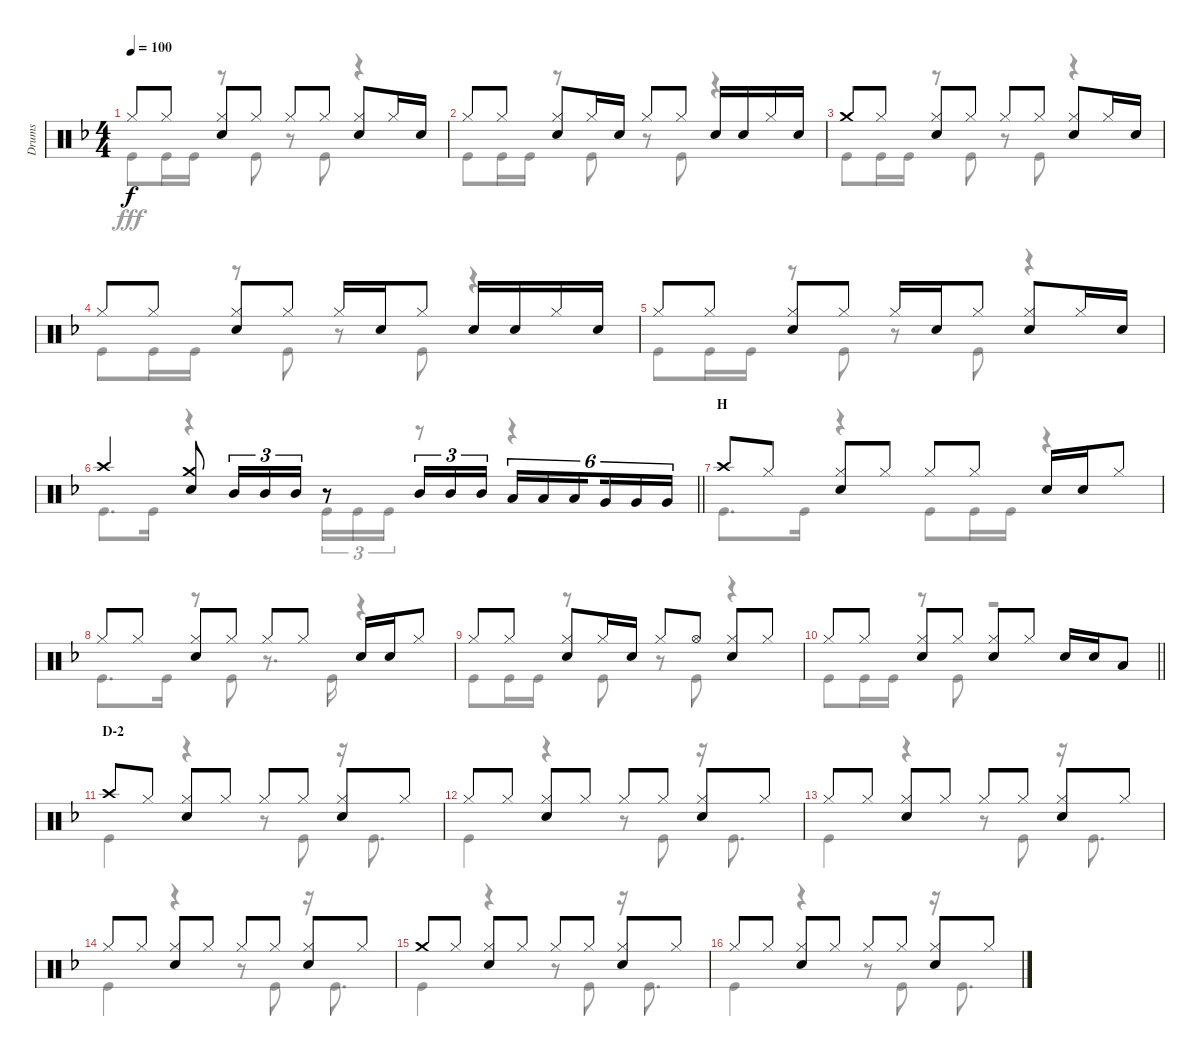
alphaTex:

\track ("Drums" "Drums") {instrument percussion}
\staff {score}
\articulation defaults
\voice
\ts (4 4)
\tempo 100
\clef neutral
\ks f "Hi-Hat (closed)".8{dy f} "Hi-Hat (closed)".8
("Hi-Hat (closed)" "Snare (hit) 2").8 "Hi-Hat (closed)".8 "Hi-Hat (closed)".8 "Hi-Hat (closed)".8 ("Hi-Hat (closed)" "Snare (hit) 2").8 "Hi-Hat (closed)".16 "Snare (hit) 2".16 |
"Hi-Hat (closed)".8 "Hi-Hat (closed)".8 ("Hi-Hat (closed)" "Snare (hit) 2").8 "Hi-Hat (closed)".16 "Snare (hit) 2".16 "Hi-Hat (closed)".8 "Hi-Hat (closed)".8 "Snare (hit) 2".16 "Snare (hit) 2".16 "Hi-Hat (closed)".16 "Snare (hit) 2".16 |
"Crash medium (hit)".8 "Hi-Hat (closed)".8 ("Hi-Hat (closed)" "Snare (hit) 2").8 "Hi-Hat (closed)".8 "Hi-Hat (closed)".8 "Hi-Hat (closed)".8 ("Hi-Hat (closed)" "Snare (hit) 2").8 "Hi-Hat (closed)".16 "Snare (hit) 2".16 |
"Hi-Hat (closed)".8 "Hi-Hat (closed)".8 ("Hi-Hat (closed)" "Snare (hit) 2").8 "Hi-Hat (closed)".8 "Hi-Hat (closed)".16 "Snare (hit) 2".16 "Hi-Hat (closed)".8 "Snare (hit) 2".16 "Snare (hit) 2".16 "Hi-Hat (closed)".16 "Snare (hit) 2".16 |
"Hi-Hat (closed)".8 "Hi-Hat (closed)".8 ("Hi-Hat (closed)" "Snare (hit) 2").8 "Hi-Hat (closed)".8 "Hi-Hat (closed)".16 "Snare (hit) 2".16 "Hi-Hat (closed)".8 ("Hi-Hat (closed)" "Snare (hit) 2").8 "Hi-Hat (closed)".16 "Snare (hit) 2".16 |
\barLineRight lightlight "Crash high (hit)".4
("Crash medium (hit)" "Snare (hit) 2").8 "Mid Tom (hit)".16{tu (3 2)} "Mid Tom (hit)".16{tu (3 2)} "Mid Tom (hit)".16{tu (3 2)} r.8 "Mid Tom (hit)".16{tu (3 2)} "Mid Tom (hit)".16{tu (3 2)} "Mid Tom (hit)".16{tu (3 2)} "Low Tom (hit)".16{tu (6 4)} "Low Tom (hit)".16{tu (6 4)} "Low Tom (hit)".16{tu (6 4) beam splitsecondary} "Very Low Tom (hit)".16{tu (6 4)} "Very Low Tom (hit)".16{tu (6 4)} "Very Low Tom (hit)".16{tu (6 4)} |
\section ("" "H")
"Crash high (hit)".8 "Hi-Hat (closed)".8 ("Hi-Hat (closed)" "Snare (hit) 2").8 "Hi-Hat (closed)".8 "Hi-Hat (closed)".8 "Hi-Hat (closed)".8 "Snare (hit) 2".16 "Snare (hit) 2".16 "Hi-Hat (closed)".8 |
"Hi-Hat (closed)".8 "Hi-Hat (closed)".8 ("Hi-Hat (closed)" "Snare (hit) 2").8 "Hi-Hat (closed)".8 "Hi-Hat (closed)".8 "Hi-Hat (closed)".8 "Snare (hit) 2".16 "Snare (hit) 2".16 "Hi-Hat (closed)".8 |
"Hi-Hat (closed)".8 "Hi-Hat (closed)".8 ("Hi-Hat (closed)" "Snare (hit) 2").8 "Hi-Hat (closed)".16 "Snare (hit) 2".16 "Hi-Hat (closed)".8 "Hi-Hat (open)".8 ("Hi-Hat (closed)" "Snare (hit) 2").8 "Hi-Hat (closed)".8 |
\barLineRight lightlight "Hi-Hat (closed)".8 "Hi-Hat (closed)".8
("Hi-Hat (closed)" "Snare (hit) 2").8 "Hi-Hat (closed)".8 ("Hi-Hat (closed)" "Snare (hit) 2").8 "Hi-Hat (closed)".8 "Snare (hit) 2".16 "Snare (hit) 2".16 "Low Tom (hit)".8 |
\section ("" "D-2")
"Crash high (hit)".8 "Hi-Hat (closed)".8 ("Hi-Hat (closed)" "Snare (hit) 2").8 "Hi-Hat (closed)".8 "Hi-Hat (closed)".8 "Hi-Hat (closed)".8 ("Hi-Hat (closed)" "Snare (hit) 2").8 "Hi-Hat (closed)".8 |
"Hi-Hat (closed)".8 "Hi-Hat (closed)".8 ("Hi-Hat (closed)" "Snare (hit) 2").8 "Hi-Hat (closed)".8 "Hi-Hat (closed)".8 "Hi-Hat (closed)".8 ("Hi-Hat (closed)" "Snare (hit) 2").8 "Hi-Hat (closed)".8 |
"Hi-Hat (closed)".8 "Hi-Hat (closed)".8 ("Hi-Hat (closed)" "Snare (hit) 2").8 "Hi-Hat (closed)".8 "Hi-Hat (closed)".8 "Hi-Hat (closed)".8 ("Hi-Hat (closed)" "Snare (hit) 2").8 "Hi-Hat (closed)".8 |
"Hi-Hat (closed)".8 "Hi-Hat (closed)".8 ("Hi-Hat (closed)" "Snare (hit) 2").8 "Hi-Hat (closed)".8 "Hi-Hat (closed)".8 "Hi-Hat (closed)".8 ("Hi-Hat (closed)" "Snare (hit) 2").8 "Hi-Hat (closed)".8 |
"Crash medium (hit)".8 "Hi-Hat (closed)".8 ("Hi-Hat (closed)" "Snare (hit) 2").8 "Hi-Hat (closed)".8 "Hi-Hat (closed)".8 "Hi-Hat (closed)".8 ("Hi-Hat (closed)" "Snare (hit) 2").8 "Hi-Hat (closed)".8 |
"Hi-Hat (closed)".8 "Hi-Hat (closed)".8 ("Hi-Hat (closed)" "Snare (hit) 2").8 "Hi-Hat (closed)".8 "Hi-Hat (closed)".8 "Hi-Hat (closed)".8 ("Hi-Hat (closed)" "Snare (hit) 2").8 "Hi-Hat (closed)".8
\voice
\clef neutral
\ottava regular
\simile none
\ks f "Kick (hit)".8{dy fff} "Kick (hit)".16 "Kick (hit)".16
r.8 "Kick (hit)".8 r.8 "Kick (hit)".8 r.4 |
"Kick (hit)".8 "Kick (hit)".16 "Kick (hit)".16 r.8 "Kick (hit)".8 r.8 "Kick (hit)".8 r.4 |
"Kick (hit)".8 "Kick (hit)".16 "Kick (hit)".16 r.8 "Kick (hit)".8 r.8 "Kick (hit)".8 r.4 |
"Kick (hit)".8 "Kick (hit)".16 "Kick (hit)".16 r.8 "Kick (hit)".8 r.8 "Kick (hit)".8 r.4 |
"Kick (hit)".8 "Kick (hit)".16 "Kick (hit)".16 r.8 "Kick (hit)".8 r.8 "Kick (hit)".8 r.4 |
\barLineRight lightlight "Kick (hit)".8{d} "Kick (hit)".16
r.4 "Kick (hit)".16{tu (3 2)} "Kick (hit)".16{tu (3 2)} "Kick (hit)".16{tu (3 2)} r.8 r.4 |
"Kick (hit)".8{d} "Kick (hit)".16 r.4 "Kick (hit)".8 "Kick (hit)".16 "Kick (hit)".16 r.4 |
"Kick (hit)".8{d} "Kick (hit)".16 r.8 "Kick (hit)".8 r.8{d} "Kick (hit)".16 r.4 |
"Kick (hit)".8 "Kick (hit)".16 "Kick (hit)".16 r.8 "Kick (hit)".8 r.8 "Kick (hit)".8 r.4 |
\barLineRight lightlight "Kick (hit)".8 "Kick (hit)".16 "Kick (hit)".16
r.8 "Kick (hit)".8 r.2 |
"Kick (hit)".4 r.4 r.8 "Kick (hit)".8 r.16 "Kick (hit)".8{d} |
"Kick (hit)".4 r.4 r.8 "Kick (hit)".8 r.16 "Kick (hit)".8{d} |
"Kick (hit)".4 r.4 r.8 "Kick (hit)".8 r.16 "Kick (hit)".8{d} |
"Kick (hit)".4 r.4 r.8 "Kick (hit)".8 r.16 "Kick (hit)".8{d} |
"Kick (hit)".4 r.4 r.8 "Kick (hit)".8 r.16 "Kick (hit)".8{d} |
"Kick (hit)".4 r.4 r.8 "Kick (hit)".8 r.16 "Kick (hit)".8{d}
